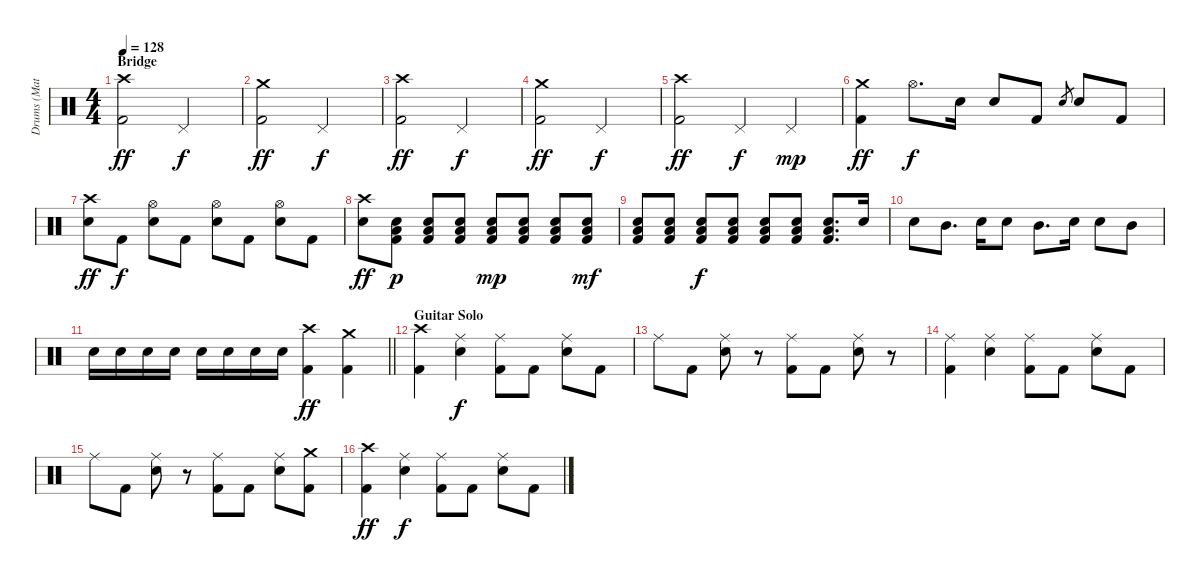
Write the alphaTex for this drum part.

\track ("Drums (Matt Sorum)" "Drums (Mat") {instrument percussion}
\staff {score}
\articulation defaults
\ts (4 4)
\section ("" "Bridge")
\tempo 128
\clef neutral
\ks c
("Crash high (hit)" "Kick (hit) 2").2{dy ff} "Pedal Hi-Hat (hit)".2{dy f} |
("Crash medium (hit)" "Kick (hit) 2").2{dy ff} "Pedal Hi-Hat (hit)".2{dy f} |
("Crash high (hit)" "Kick (hit) 2").2{dy ff} "Pedal Hi-Hat (hit)".2{dy f} |
("Crash medium (hit)" "Kick (hit) 2").2{dy ff} "Pedal Hi-Hat (hit)".2{dy f} |
("Crash high (hit)" "Kick (hit) 2").2{dy ff} "Pedal Hi-Hat (hit)".4{dy f} "Pedal Hi-Hat (hit)".4{dy mp} |
("Crash medium (hit)" "Kick (hit) 2").4{dy ff} "Hi-Hat (open)".8{d dy f} "Snare (hit) 2".16 "Snare (hit) 2".8 "Kick (hit) 2".8 "Snare (hit) 2".8{gr} "Snare (hit) 2".8 "Kick (hit) 2".8 |
("Crash high (hit)" "Snare (hit) 2").8{dy ff} "Kick (hit) 2".8{dy f} ("Hi-Hat (open)" "Snare (hit) 2").8 "Kick (hit) 2".8 ("Hi-Hat (open)" "Snare (hit) 2").8 "Kick (hit) 2".8 ("Hi-Hat (open)" "Snare (hit) 2").8 "Kick (hit) 2".8 |
("Crash high (hit)" "Snare (hit) 2").8{dy ff} ("Snare (hit) 2" "Low Floor Tom (hit)" "Kick (hit) 2").8{dy p} ("Snare (hit) 2" "Low Floor Tom (hit)" "Kick (hit) 2").8 ("Snare (hit) 2" "Low Floor Tom (hit)" "Kick (hit) 2").8 ("Snare (hit) 2" "Low Floor Tom (hit)" "Kick (hit) 2").8{dy mp} ("Snare (hit) 2" "Low Floor Tom (hit)" "Kick (hit) 2").8 ("Snare (hit) 2" "Low Floor Tom (hit)" "Kick (hit) 2").8 ("Snare (hit) 2" "Low Floor Tom (hit)" "Kick (hit) 2").8{dy mf} |
("Snare (hit) 2" "Low Floor Tom (hit)" "Kick (hit) 2").8 ("Snare (hit) 2" "Low Floor Tom (hit)" "Kick (hit) 2").8 ("Snare (hit) 2" "Low Floor Tom (hit)" "Kick (hit) 2").8{dy f} ("Snare (hit) 2" "Low Floor Tom (hit)" "Kick (hit) 2").8 ("Snare (hit) 2" "Low Floor Tom (hit)" "Kick (hit) 2").8 ("Snare (hit) 2" "Low Floor Tom (hit)" "Kick (hit) 2").8 ("Snare (hit) 2" "Low Floor Tom (hit)" "Kick (hit) 2").8{d} "Snare (hit) 2".16 |
"Snare (hit) 2".8 "Mid Tom (hit)".8{d} "Snare (hit) 2".16 "Snare (hit) 2".8 "Mid Tom (hit)".8{d} "Snare (hit) 2".16 "Snare (hit) 2".8 "Mid Tom (hit)".8 |
\barLineRight lightlight "Snare (hit) 2".16 "Snare (hit) 2".16 "Snare (hit) 2".16 "Snare (hit) 2".16 "Snare (hit) 2".16 "Snare (hit) 2".16 "Snare (hit) 2".16 "Snare (hit) 2".16
("Crash high (hit)" "Kick (hit) 2").4{dy ff} ("Crash medium (hit)" "Kick (hit) 2").4 |
\section ("" "Guitar Solo")
("Crash high (hit)" "Kick (hit) 2").4 ("Ride (middle)" "Snare (hit) 2").4{dy f} ("Ride (middle)" "Kick (hit) 2").8 "Kick (hit) 2".8 ("Ride (middle)" "Snare (hit) 2").8 "Kick (hit) 2".8 |
"Ride (middle)".8 "Kick (hit) 2".8 ("Ride (middle)" "Snare (hit) 2").8 r.8 ("Ride (middle)" "Kick (hit) 2").8 "Kick (hit) 2".8 ("Ride (middle)" "Snare (hit) 2").8 r.8 |
("Ride (middle)" "Kick (hit) 2").4 ("Ride (middle)" "Snare (hit) 2").4 ("Ride (middle)" "Kick (hit) 2").8 "Kick (hit) 2".8 ("Ride (middle)" "Snare (hit) 2").8 "Kick (hit) 2".8 |
"Ride (middle)".8 "Kick (hit) 2".8 ("Ride (middle)" "Snare (hit) 2").8 r.8 ("Ride (middle)" "Kick (hit) 2").8 "Kick (hit) 2".8 ("Ride (middle)" "Snare (hit) 2").8 ("Crash medium (hit)" "Kick (hit) 2").8 |
("Crash high (hit)" "Kick (hit) 2").4{dy ff} ("Ride (middle)" "Snare (hit) 2").4{dy f} ("Ride (middle)" "Kick (hit) 2").8 "Kick (hit) 2".8 ("Ride (middle)" "Snare (hit) 2").8 "Kick (hit) 2".8
